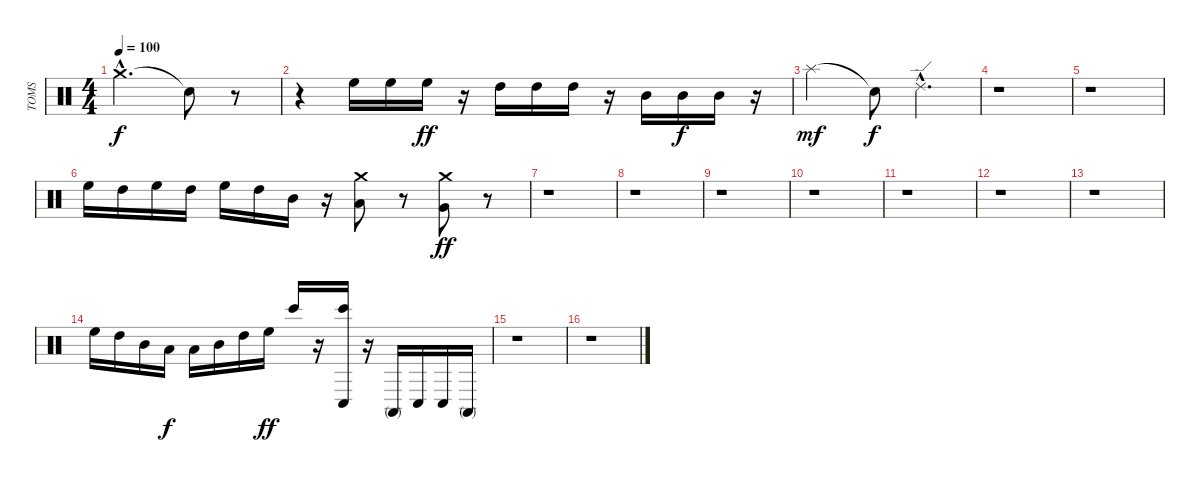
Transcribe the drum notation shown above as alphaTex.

\track ("TOMS" "TOMS") {instrument percussion}
\staff {score}
\articulation defaults
\ts (4 4)
\tempo 100
\clef neutral
\ks c "Crash medium (hit)"{hac}.2{d dy f} "Snare (hit)"{t}.8
r.8 |
r.4 "High Floor Tom (hit)".16 "High Floor Tom (hit)".16 "High Floor Tom (hit)".16{dy ff} r.16 "High Tom (hit)".16 "High Tom (hit)".16 "High Tom (hit)".16 r.16 "Mid Tom (hit)".16 "Mid Tom (hit)".16{dy f} "Mid Tom (hit)".16 r.16 |
"Splash (hit)".2{dy mf} "Snare (hit)"{t}.8{dy f} "Ride (edge) 2"{hac}.4{d} |
r.1 |
r.1 |
"High Floor Tom (hit)".16 "High Tom (hit)".16 "High Floor Tom (hit)".16 "High Tom (hit)".16 "High Floor Tom (hit)".16 "High Tom (hit)".16 "Mid Tom (hit)".16 r.16 ("Low Tom (hit)" "Crash medium (hit)").8 r.8 ("Very Low Tom (hit)" "Crash medium (hit)").8{dy ff} r.8 |
r.1 |
r.1 |
r.1 |
r.1 |
r.1 |
r.1 |
r.1 |
"High Floor Tom (hit)".16 "High Tom (hit)".16 "Mid Tom (hit)".16 "Low Tom (hit)".16{dy f} "Low Tom (hit)".16 "Mid Tom (hit)".16 "High Tom (hit)".16 "High Floor Tom (hit)".16{dy ff} "Bongo High (hit)".16 r.16 ("Conga low (hit)" "Bongo High (hit)").16 r.16 "Conga high (mute)".16 "Conga low (hit)".16 "Conga low (hit)".16 "Conga high (mute)".16 |
r.1 |
r.1
